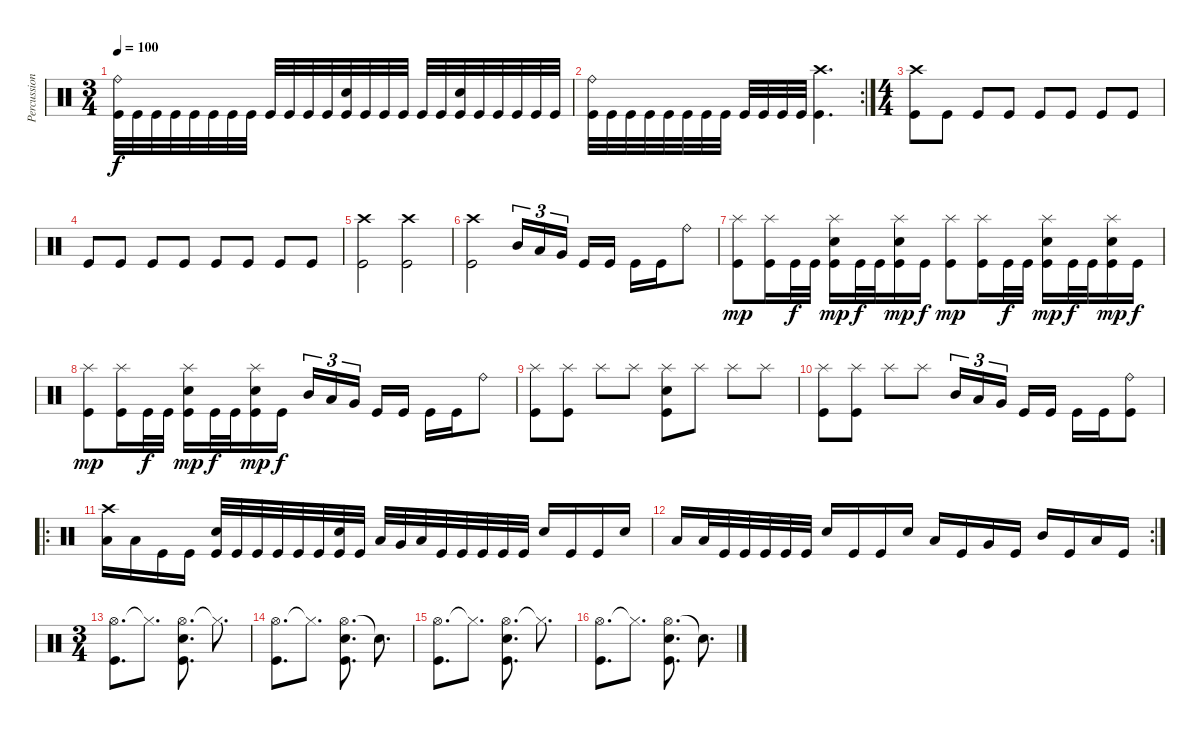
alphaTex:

\track ("Percussion" "Percussion") {instrument percussion}
\staff
\articulation defaults
\ts (3 4)
\tempo 100
\clef neutral
\ks c
("Ride (bell)" "Kick (hit)").32{dy f} "Kick (hit)".32 "Kick (hit)".32 "Kick (hit)".32 "Kick (hit)".32 "Kick (hit)".32 "Kick (hit)".32 "Kick (hit)".32 "Kick (hit)".32 "Kick (hit)".32 "Kick (hit)".32 "Kick (hit)".32 ("Electric Snare (hit)" "Kick (hit)").32 "Kick (hit)".32 "Kick (hit)".32 "Kick (hit)".32 "Kick (hit)".32 "Kick (hit)".32 ("Electric Snare (hit)" "Kick (hit)").32 "Kick (hit)".32 "Kick (hit)".32 "Kick (hit)".32 "Kick (hit)".32 "Kick (hit)".32 |
\rc 2
("Ride (bell)" "Kick (hit)").32 "Kick (hit)".32 "Kick (hit)".32 "Kick (hit)".32 "Kick (hit)".32 "Kick (hit)".32 "Kick (hit)".32 "Kick (hit)".32 "Kick (hit)".32 "Kick (hit)".32 "Kick (hit)".32 "Kick (hit)".32 ("Crash high (hit)" "Kick (hit)").4{d} |
\ts (4 4)
("Crash high (hit)" "Kick (hit)").8 "Kick (hit)".8 "Kick (hit)".8 "Kick (hit)".8 "Kick (hit)".8 "Kick (hit)".8 "Kick (hit)".8 "Kick (hit)".8 |
"Kick (hit)".8 "Kick (hit)".8 "Kick (hit)".8 "Kick (hit)".8 "Kick (hit)".8 "Kick (hit)".8 "Kick (hit)".8 "Kick (hit)".8 |
("Crash high (hit)" "Kick (hit)").2 ("Crash high (hit)" "Kick (hit)").2 |
("Crash high (hit)" "Kick (hit)").2 "Mid Tom (hit)".16{tu (3 2)} "Low Tom (hit)".16{tu (3 2)} "Very Low Tom (hit)".16{tu (3 2) beam splitsecondary} "Kick (hit)".16 "Kick (hit)".16 "Kick (hit)".16 "Kick (hit)".16 "Ride (bell)".8 |
("Splash (hit)" "Kick (hit)").8{dy mp} ("Splash (hit)" "Kick (hit)").16 "Kick (hit)".32{dy f} "Kick (hit)".32 ("Splash (hit)" "Electric Snare (hit)" "Kick (hit)").16{dy mp} "Kick (hit)".32{dy f} "Kick (hit)".32 ("Splash (hit)" "Electric Snare (hit)" "Kick (hit)").16{dy mp} "Kick (hit)".16{dy f} ("Splash (hit)" "Kick (hit)").8{dy mp} ("Splash (hit)" "Kick (hit)").16 "Kick (hit)".32{dy f} "Kick (hit)".32 ("Splash (hit)" "Electric Snare (hit)" "Kick (hit)").16{dy mp} "Kick (hit)".32{dy f} "Kick (hit)".32 ("Splash (hit)" "Electric Snare (hit)" "Kick (hit)").16{dy mp} "Kick (hit)".16{dy f} |
("Splash (hit)" "Kick (hit)").8{dy mp} ("Splash (hit)" "Kick (hit)").16 "Kick (hit)".32{dy f} "Kick (hit)".32 ("Splash (hit)" "Electric Snare (hit)" "Kick (hit)").16{dy mp} "Kick (hit)".32{dy f} "Kick (hit)".32 ("Splash (hit)" "Electric Snare (hit)" "Kick (hit)").16{dy mp} "Kick (hit)".16{dy f} "Mid Tom (hit)".16{tu (3 2)} "Low Tom (hit)".16{tu (3 2)} "Very Low Tom (hit)".16{tu (3 2) beam splitsecondary} "Kick (hit)".16 "Kick (hit)".16 "Kick (hit)".16 "Kick (hit)".16 "Ride (bell)".8 |
("Splash (hit)" "Kick (hit)").8 ("Splash (hit)" "Kick (hit)").8 "Splash (hit)".8 "Splash (hit)".8 ("Splash (hit)" "Electric Snare (hit)" "Kick (hit)").8 "Splash (hit)".8 "Splash (hit)".8 "Splash (hit)".8 |
("Splash (hit)" "Kick (hit)").8 ("Splash (hit)" "Kick (hit)").8 "Splash (hit)".8 "Splash (hit)".8 "Mid Tom (hit)".16{tu (3 2)} "Low Tom (hit)".16{tu (3 2)} "Very Low Tom (hit)".16{tu (3 2) beam splitsecondary} "Kick (hit)".16 "Kick (hit)".16 "Kick (hit)".16 "Kick (hit)".16 ("Ride (bell)" "Kick (hit)").8 |
\ro
("Crash high (hit)" "Low Tom (hit)").16 "Low Floor Tom (hit)".16 "Kick (hit)".16 "Kick (hit)".16 ("Electric Snare (hit)" "Kick (hit)").32 "Kick (hit)".32 "Kick (hit)".32 "Kick (hit)".32 "Kick (hit)".32 "Kick (hit)".32 ("Electric Snare (hit)" "Kick (hit)").32 "Kick (hit)".32 "Low Tom (hit)".32 "Very Low Tom (hit)".32 "Low Floor Tom (hit)".32 "Kick (hit)".32 "Kick (hit)".32 "Kick (hit)".32 "Kick (hit)".32 "Kick (hit)".32 "Electric Snare (hit)".16 "Kick (hit)".16 "Kick (hit)".16 "Electric Snare (hit)".16 |
\rc 2 "Low Tom (hit)".16 "Low Floor Tom (hit)".32 "Kick (hit)".32 "Kick (hit)".32 "Kick (hit)".32 "Kick (hit)".32 "Kick (hit)".32 "Electric Snare (hit)".16 "Kick (hit)".16 "Kick (hit)".16 "Electric Snare (hit)".16 "Low Tom (hit)".16 "Kick (hit)".16 "Very Low Tom (hit)".16 "Kick (hit)".16 "Mid Tom (hit)".16 "Kick (hit)".16 "Low Tom (hit)".16 "Kick (hit)".16
|
\ts (3 4)
("Hi-Hat (open)" "Kick (hit)").8{d} "Hi-Hat (closed)"{t}.8{d} ("Hi-Hat (open)" "Electric Snare (hit)" "Kick (hit)").8{d} "Hi-Hat (closed)"{t}.8{d} |
("Hi-Hat (open)" "Kick (hit)").8{d} "Hi-Hat (closed)"{t}.8{d} ("Hi-Hat (open)" "Electric Snare (hit)" "Kick (hit)").8{d} "Snare (hit)"{t}.8{d} |
("Hi-Hat (open)" "Kick (hit)").8{d} "Hi-Hat (closed)"{t}.8{d} ("Hi-Hat (open)" "Electric Snare (hit)" "Kick (hit)").8{d} "Hi-Hat (closed)"{t}.8{d} |
("Hi-Hat (open)" "Kick (hit)").8{d} "Hi-Hat (closed)"{t}.8{d} ("Hi-Hat (open)" "Electric Snare (hit)" "Kick (hit)").8{d} "Snare (hit)"{t}.8{d}
